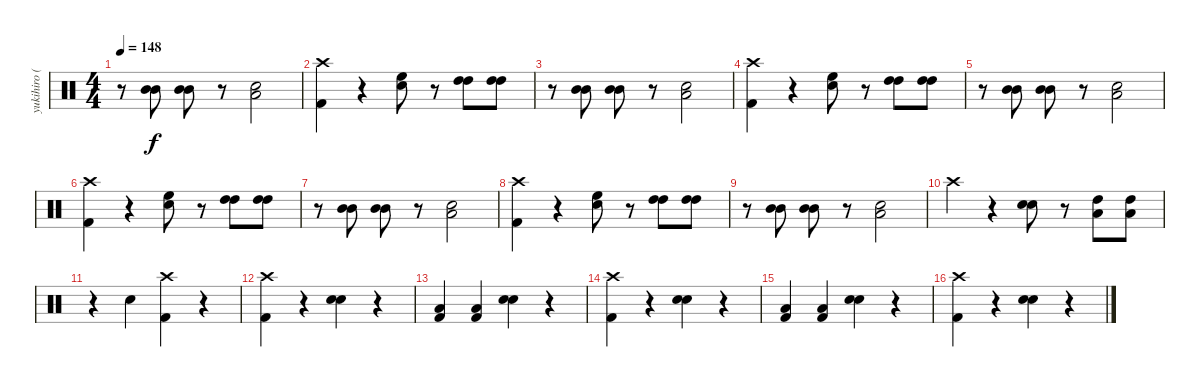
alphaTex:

\track ("yukihiro (Drums)" "yukihiro (") {instrument percussion}
\staff {score}
\articulation defaults
\ts (4 4)
\tempo 148
\clef neutral
\ks c
r.8{dy f} ("Mid Tom (hit)" "Mid Tom (hit)").8 ("Mid Tom (hit)" "Mid Tom (hit)").8 r.8 ("Electric Snare (hit)" "Low Tom (hit)").2 |
("Crash high (hit)" "Kick (hit) 2").4 r.4 ("High Floor Tom (hit)" "Electric Snare (hit)").8 r.8 ("High Tom (hit)" "High Tom (hit)").8 ("High Tom (hit)" "High Tom (hit)").8 |
r.8 ("Mid Tom (hit)" "Mid Tom (hit)").8 ("Mid Tom (hit)" "Mid Tom (hit)").8 r.8 ("Electric Snare (hit)" "Low Tom (hit)").2 |
("Crash high (hit)" "Kick (hit) 2").4 r.4 ("High Floor Tom (hit)" "Electric Snare (hit)").8 r.8 ("High Tom (hit)" "High Tom (hit)").8 ("High Tom (hit)" "High Tom (hit)").8 |
r.8 ("Mid Tom (hit)" "Mid Tom (hit)").8 ("Mid Tom (hit)" "Mid Tom (hit)").8 r.8 ("Electric Snare (hit)" "Low Tom (hit)").2 |
("Crash high (hit)" "Kick (hit) 2").4 r.4 ("High Floor Tom (hit)" "Electric Snare (hit)").8 r.8 ("High Tom (hit)" "High Tom (hit)").8 ("High Tom (hit)" "High Tom (hit)").8 |
r.8 ("Mid Tom (hit)" "Mid Tom (hit)").8 ("Mid Tom (hit)" "Mid Tom (hit)").8 r.8 ("Electric Snare (hit)" "Low Tom (hit)").2 |
("Crash high (hit)" "Kick (hit) 2").4 r.4 ("High Floor Tom (hit)" "Electric Snare (hit)").8 r.8 ("High Tom (hit)" "High Tom (hit)").8 ("High Tom (hit)" "High Tom (hit)").8 |
r.8 ("Mid Tom (hit)" "Mid Tom (hit)").8 ("Mid Tom (hit)" "Mid Tom (hit)").8 r.8 ("Electric Snare (hit)" "Low Tom (hit)").2 |
"Crash high (hit)".4 r.4 ("Electric Snare (hit)" "Electric Snare (hit)").8 r.8 ("High Tom (hit)" "Low Tom (hit)").8 ("High Tom (hit)" "Low Tom (hit)").8 |
r.4 "Electric Snare (hit)".4 ("Crash high (hit)" "Kick (hit) 2").4 r.4 |
("Crash high (hit)" "Kick (hit) 2").4 r.4 ("Electric Snare (hit)" "Electric Snare (hit)").4 r.4 |
("Low Tom (hit)" "Kick (hit) 2").4 ("Low Tom (hit)" "Kick (hit) 2").4 ("Electric Snare (hit)" "Electric Snare (hit)").4 r.4 |
("Crash high (hit)" "Kick (hit) 2").4 r.4 ("Electric Snare (hit)" "Electric Snare (hit)").4 r.4 |
("Low Tom (hit)" "Kick (hit) 2").4 ("Low Tom (hit)" "Kick (hit) 2").4 ("Electric Snare (hit)" "Electric Snare (hit)").4 r.4 |
("Crash high (hit)" "Kick (hit) 2").4 r.4 ("Electric Snare (hit)" "Electric Snare (hit)").4 r.4
